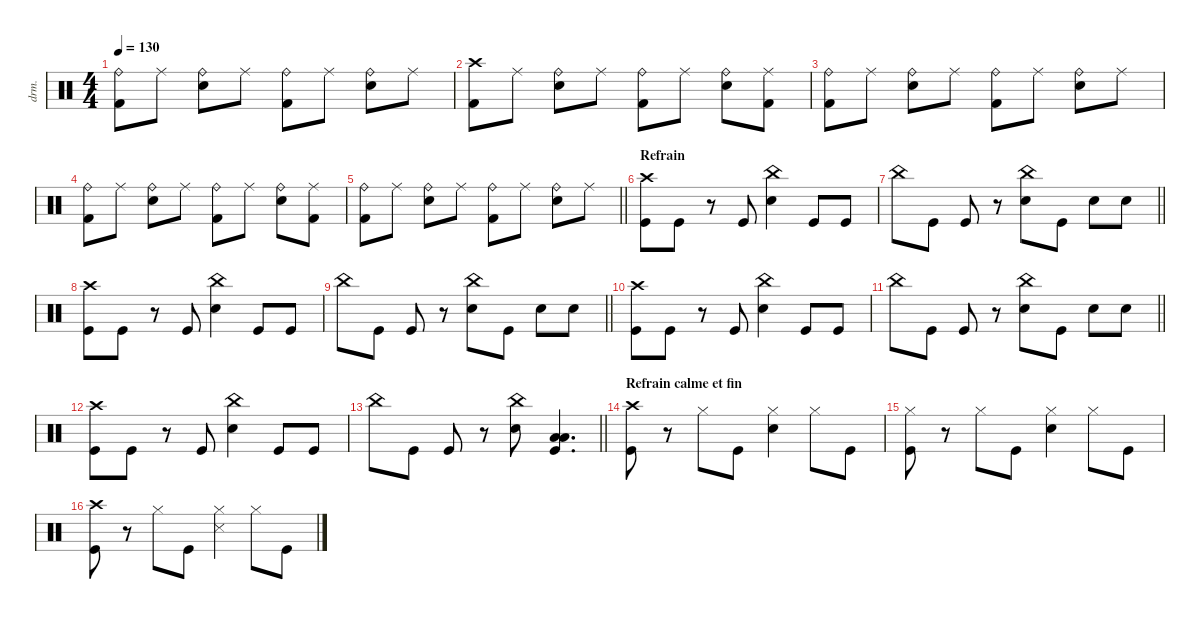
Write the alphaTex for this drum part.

\defaultSystemsLayout 4
\hideDynamics
\bracketExtendMode nobrackets
\otherSystemsTrackNameOrientation horizontal
\track ("Manouche" "drm.") {instrument percussion}
\staff {score}
\articulation defaults
\ts (4 4)
\tempo 130
\clef neutral
\ks c
("Ride (bell)" "Kick (hit) 2").8{dy f} "Ride (middle)".8{dy mf} ("Ride (bell)" "Snare (hit) 2").8{dy f} "Ride (middle)".8{dy mf} ("Ride (bell)" "Kick (hit) 2").8{dy f} "Ride (middle)".8{dy mf} ("Ride (bell)" "Snare (hit) 2").8{dy f} "Ride (middle)".8{dy mf} |
("Crash high (hit)" "Kick (hit) 2").8{dy f} "Ride (middle)".8{dy mf} ("Ride (bell)" "Snare (hit) 2").8{dy f} "Ride (middle)".8{dy mf} ("Ride (bell)" "Kick (hit) 2").8{dy f} "Ride (middle)".8{dy mf} ("Ride (bell)" "Snare (hit) 2").8{dy f} ("Ride (middle)" "Kick (hit) 2").8{dy mf} |
("Ride (bell)" "Kick (hit) 2").8{dy f} "Ride (middle)".8{dy mf} ("Ride (bell)" "Snare (hit) 2").8{dy f} "Ride (middle)".8{dy mf} ("Ride (bell)" "Kick (hit) 2").8{dy f} "Ride (middle)".8{dy mf} ("Ride (bell)" "Snare (hit) 2").8{dy f} "Ride (middle)".8{dy mf} |
("Ride (bell)" "Kick (hit) 2").8{dy f} "Ride (middle)".8{dy mf} ("Ride (bell)" "Snare (hit) 2").8{dy f} "Ride (middle)".8{dy mf} ("Ride (bell)" "Kick (hit) 2").8{dy f} "Ride (middle)".8{dy mf} ("Ride (bell)" "Snare (hit) 2").8{dy f} ("Ride (middle)" "Kick (hit) 2").8{dy mf} |
\barLineRight lightlight
("Ride (bell)" "Kick (hit) 2").8{dy f} "Ride (middle)".8{dy mf} ("Ride (bell)" "Snare (hit) 2").8{dy f} "Ride (middle)".8{dy mf} ("Ride (bell)" "Kick (hit) 2").8{dy f} "Ride (middle)".8{dy mf} ("Ride (bell)" "Snare (hit) 2").8{dy f} "Ride (middle)".8{dy mf} |
\section ("" "Refrain")
("Crash high (hit)" "Kick (hit)").8{dy f} "Kick (hit)".8 r.8 "Kick (hit)".8 ("China (hit)" "Snare (hit) 2").4 "Kick (hit)".8 "Kick (hit)".8 |
\barLineRight lightlight "China (hit)".8 "Kick (hit)".8 "Kick (hit)".8
r.8 ("China (hit)" "Snare (hit) 2").8 "Kick (hit)".8 "Snare (hit) 2".8 "Snare (hit) 2".8 |
("Crash high (hit)" "Kick (hit)").8 "Kick (hit)".8 r.8 "Kick (hit)".8 ("China (hit)" "Snare (hit) 2").4 "Kick (hit)".8 "Kick (hit)".8 |
\barLineRight lightlight "China (hit)".8 "Kick (hit)".8 "Kick (hit)".8
r.8 ("China (hit)" "Snare (hit) 2").8 "Kick (hit)".8 "Snare (hit) 2".8 "Snare (hit) 2".8 |
("Crash high (hit)" "Kick (hit)").8 "Kick (hit)".8 r.8 "Kick (hit)".8 ("China (hit)" "Snare (hit) 2").4 "Kick (hit)".8 "Kick (hit)".8 |
\barLineRight lightlight "China (hit)".8 "Kick (hit)".8 "Kick (hit)".8
r.8 ("China (hit)" "Snare (hit) 2").8 "Kick (hit)".8 "Snare (hit) 2".8 "Snare (hit) 2".8 |
("Crash high (hit)" "Kick (hit)").8 "Kick (hit)".8 r.8 "Kick (hit)".8 ("China (hit)" "Snare (hit) 2").4 "Kick (hit)".8 "Kick (hit)".8 |
\barLineRight lightlight "China (hit)".8 "Kick (hit)".8 "Kick (hit)".8
r.8 ("China (hit)" "Snare (hit) 2").8 ("Low Tom (hit)" "Kick (hit)" "Low Floor Tom (hit)").4{d dy ff} |
\section ("" "Refrain calme et fin")
("Crash high (hit)" "Kick (hit)").8{dy f} r.8 "Hi-Hat (closed)".8 "Kick (hit)".8 ("Hi-Hat (closed)" "Snare (hit) 2").4 "Hi-Hat (closed)".8 "Kick (hit)".8 |
("Hi-Hat (closed)" "Kick (hit)").8 r.8 "Hi-Hat (closed)".8 "Kick (hit)".8 ("Hi-Hat (closed)" "Snare (hit) 2").4 "Hi-Hat (closed)".8 "Kick (hit)".8 |
("Crash high (hit)" "Kick (hit)").8 r.8 "Hi-Hat (closed)".8 "Kick (hit)".8 ("Hi-Hat (closed)" "Snare (side stick) 3").4 "Hi-Hat (closed)".8 "Kick (hit)".8
